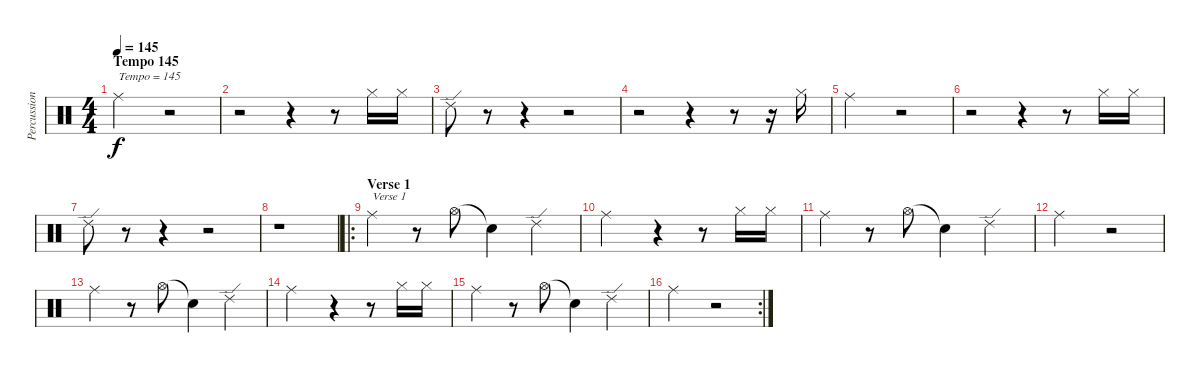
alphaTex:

\track ("Percussion" "Percussion") {instrument percussion}
\staff {score}
\articulation defaults
\ts (4 4)
\section ("" "Tempo 145")
\tempo 145
\clef neutral
\ks c "Ride (middle)".2{txt "Tempo = 145" dy f}
r.2 |
r.2 r.4 r.8 "Hi-Hat (closed)".16 "Hi-Hat (closed)".16 |
"Ride (edge) 2".8 r.8 r.4 r.2 |
r.2 r.4 r.8 r.16 "Hi-Hat (closed)".16 |
"Ride (middle)".2 r.2 |
r.2 r.4 r.8 "Hi-Hat (closed)".16 "Hi-Hat (closed)".16 |
"Ride (edge) 2".8 r.8 r.4 r.2 |
r.1 |
\ro
\section ("" "Verse 1")
"Ride (middle)".4{txt "Verse 1"} r.8 "Hi-Hat (open)".8 "Snare (hit)"{t}.4 "Ride (edge) 2".4 |
"Ride (middle)".2 r.4 r.8 "Hi-Hat (closed)".16 "Hi-Hat (closed)".16 |
"Ride (middle)".4 r.8 "Hi-Hat (open)".8 "Snare (hit)"{t}.4 "Ride (edge) 2".4 |
"Ride (middle)".2 r.2 |
"Ride (middle)".4 r.8 "Hi-Hat (open)".8 "Snare (hit)"{t}.4 "Ride (edge) 2".4 |
"Ride (middle)".2 r.4 r.8 "Hi-Hat (closed)".16 "Hi-Hat (closed)".16 |
"Ride (middle)".4 r.8 "Hi-Hat (open)".8 "Snare (hit)"{t}.4 "Ride (edge) 2".4 |
\rc 2 "Ride (middle)".2
r.2
